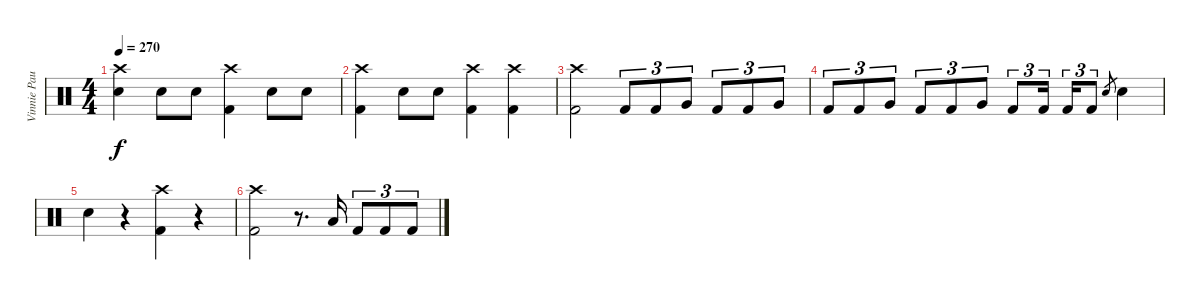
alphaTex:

\track ("Vinnie Paul" "Vinnie Pau") {instrument percussion}
\staff {score}
\articulation defaults
\ts (4 4)
\tempo 270
\clef neutral
\ks c
("Crash high (hit)" "Electric Snare (hit)").4{dy f} "Electric Snare (hit)".8 "Electric Snare (hit)".8 ("Crash high (hit)" "Kick (hit) 2").4 "Electric Snare (hit)".8 "Electric Snare (hit)".8 |
("Crash high (hit)" "Kick (hit) 2").4 "Electric Snare (hit)".8 "Electric Snare (hit)".8 ("Crash high (hit)" "Kick (hit) 2").4 ("Crash high (hit)" "Kick (hit) 2").4 |
("Crash high (hit)" "Kick (hit) 2").2 "Kick (hit) 2".8{tu (3 2)} "Kick (hit) 2".8{tu (3 2)} "Very Low Tom (hit)".8{tu (3 2)} "Kick (hit) 2".8{tu (3 2)} "Kick (hit) 2".8{tu (3 2)} "Very Low Tom (hit)".8{tu (3 2)} |
"Kick (hit) 2".8{tu (3 2)} "Kick (hit) 2".8{tu (3 2)} "Very Low Tom (hit)".8{tu (3 2)} "Kick (hit) 2".8{tu (3 2)} "Kick (hit) 2".8{tu (3 2)} "Very Low Tom (hit)".8{tu (3 2)} "Kick (hit) 2".8{tu (3 2)} "Kick (hit) 2".16{tu (3 2)} "Kick (hit) 2".16{tu (3 2)} "Kick (hit) 2".8{tu (3 2)} "Electric Snare (hit)".8{gr} "Electric Snare (hit)".4 |
"Electric Snare (hit)".4 r.4 ("Crash high (hit)" "Kick (hit) 2").4 r.4 |
("Crash high (hit)" "Kick (hit) 2").2 r.8{d} "Low Floor Tom (hit)".16 "Kick (hit) 2".8{tu (3 2)} "Kick (hit) 2".8{tu (3 2)} "Kick (hit) 2".8{tu (3 2)}
